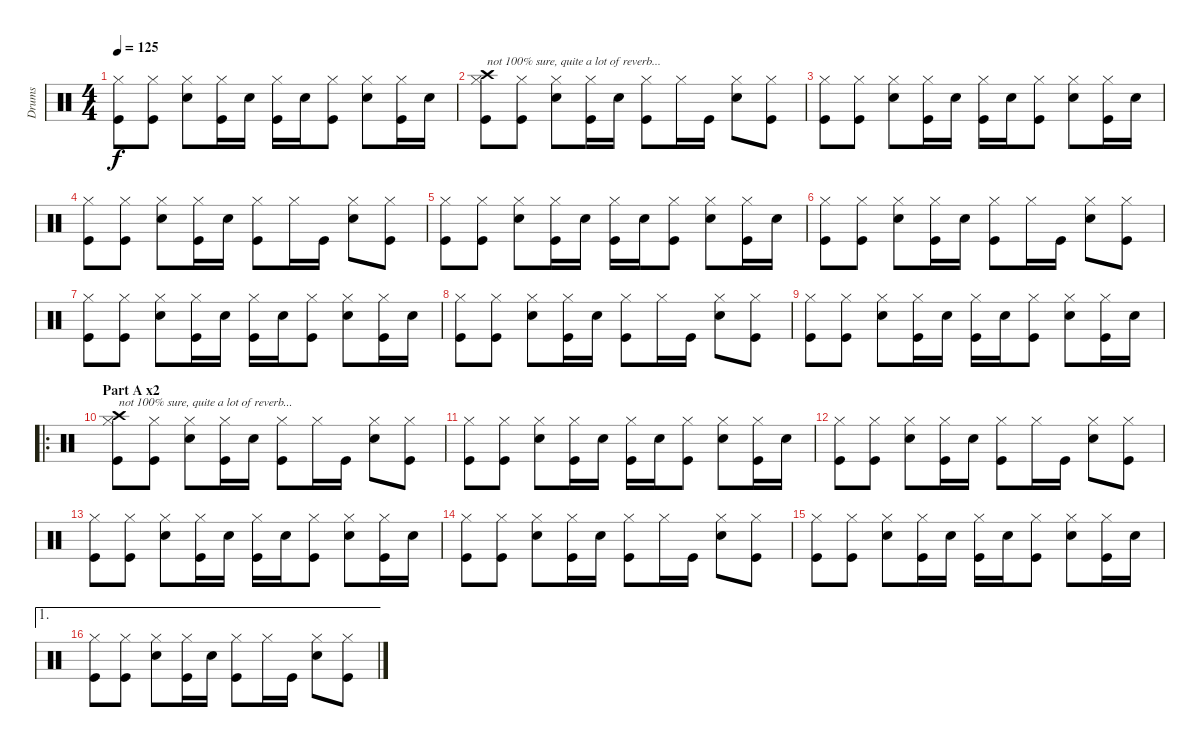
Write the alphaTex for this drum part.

\track ("Drums" "Drums") {instrument percussion}
\staff {score}
\articulation defaults
\ts (4 4)
\tempo 125
\clef neutral
\ks c
("Hi-Hat (closed)" "Kick (hit)").8{dy f} ("Hi-Hat (closed)" "Kick (hit)").8 ("Hi-Hat (closed)" "Electric Snare (hit)").8 ("Hi-Hat (closed)" "Kick (hit)").16 "Electric Snare (hit)".16 ("Hi-Hat (closed)" "Kick (hit)").16 "Electric Snare (hit)".16 ("Hi-Hat (closed)" "Kick (hit)").8 ("Hi-Hat (closed)" "Electric Snare (hit)").8 ("Hi-Hat (closed)" "Kick (hit)").16 "Electric Snare (hit)".16 |
("Hi-Hat (closed)" "Crash high (hit)" "Kick (hit)").8{txt "not 100% sure, quite a lot of reverb..."} ("Hi-Hat (closed)" "Kick (hit)").8 ("Hi-Hat (closed)" "Electric Snare (hit)").8 ("Hi-Hat (closed)" "Kick (hit)").16 "Electric Snare (hit)".16 ("Hi-Hat (closed)" "Kick (hit)").8 "Hi-Hat (closed)".16 "Kick (hit)".16 ("Hi-Hat (closed)" "Electric Snare (hit)").8 ("Hi-Hat (closed)" "Kick (hit)").8 |
("Hi-Hat (closed)" "Kick (hit)").8 ("Hi-Hat (closed)" "Kick (hit)").8 ("Hi-Hat (closed)" "Electric Snare (hit)").8 ("Hi-Hat (closed)" "Kick (hit)").16 "Electric Snare (hit)".16 ("Hi-Hat (closed)" "Kick (hit)").16 "Electric Snare (hit)".16 ("Hi-Hat (closed)" "Kick (hit)").8 ("Hi-Hat (closed)" "Electric Snare (hit)").8 ("Hi-Hat (closed)" "Kick (hit)").16 "Electric Snare (hit)".16 |
("Hi-Hat (closed)" "Kick (hit)").8 ("Hi-Hat (closed)" "Kick (hit)").8 ("Hi-Hat (closed)" "Electric Snare (hit)").8 ("Hi-Hat (closed)" "Kick (hit)").16 "Electric Snare (hit)".16 ("Hi-Hat (closed)" "Kick (hit)").8 "Hi-Hat (closed)".16 "Kick (hit)".16 ("Hi-Hat (closed)" "Electric Snare (hit)").8 ("Hi-Hat (closed)" "Kick (hit)").8 |
("Hi-Hat (closed)" "Kick (hit)").8 ("Hi-Hat (closed)" "Kick (hit)").8 ("Hi-Hat (closed)" "Electric Snare (hit)").8 ("Hi-Hat (closed)" "Kick (hit)").16 "Electric Snare (hit)".16 ("Hi-Hat (closed)" "Kick (hit)").16 "Electric Snare (hit)".16 ("Hi-Hat (closed)" "Kick (hit)").8 ("Hi-Hat (closed)" "Electric Snare (hit)").8 ("Hi-Hat (closed)" "Kick (hit)").16 "Electric Snare (hit)".16 |
("Hi-Hat (closed)" "Kick (hit)").8 ("Hi-Hat (closed)" "Kick (hit)").8 ("Hi-Hat (closed)" "Electric Snare (hit)").8 ("Hi-Hat (closed)" "Kick (hit)").16 "Electric Snare (hit)".16 ("Hi-Hat (closed)" "Kick (hit)").8 "Hi-Hat (closed)".16 "Kick (hit)".16 ("Hi-Hat (closed)" "Electric Snare (hit)").8 ("Hi-Hat (closed)" "Kick (hit)").8 |
("Hi-Hat (closed)" "Kick (hit)").8 ("Hi-Hat (closed)" "Kick (hit)").8 ("Hi-Hat (closed)" "Electric Snare (hit)").8 ("Hi-Hat (closed)" "Kick (hit)").16 "Electric Snare (hit)".16 ("Hi-Hat (closed)" "Kick (hit)").16 "Electric Snare (hit)".16 ("Hi-Hat (closed)" "Kick (hit)").8 ("Hi-Hat (closed)" "Electric Snare (hit)").8 ("Hi-Hat (closed)" "Kick (hit)").16 "Electric Snare (hit)".16 |
("Hi-Hat (closed)" "Kick (hit)").8 ("Hi-Hat (closed)" "Kick (hit)").8 ("Hi-Hat (closed)" "Electric Snare (hit)").8 ("Hi-Hat (closed)" "Kick (hit)").16 "Electric Snare (hit)".16 ("Hi-Hat (closed)" "Kick (hit)").8 "Hi-Hat (closed)".16 "Kick (hit)".16 ("Hi-Hat (closed)" "Electric Snare (hit)").8 ("Hi-Hat (closed)" "Kick (hit)").8 |
("Hi-Hat (closed)" "Kick (hit)").8 ("Hi-Hat (closed)" "Kick (hit)").8 ("Hi-Hat (closed)" "Electric Snare (hit)").8 ("Hi-Hat (closed)" "Kick (hit)").16 "Electric Snare (hit)".16 ("Hi-Hat (closed)" "Kick (hit)").16 "Electric Snare (hit)".16 ("Hi-Hat (closed)" "Kick (hit)").8 ("Hi-Hat (closed)" "Electric Snare (hit)").8 ("Hi-Hat (closed)" "Kick (hit)").16 "Electric Snare (hit)".16 |
\ro
\section ("" "Part A x2")
("Hi-Hat (closed)" "Crash high (hit)" "Kick (hit)").8{txt "not 100% sure, quite a lot of reverb..."} ("Hi-Hat (closed)" "Kick (hit)").8 ("Hi-Hat (closed)" "Electric Snare (hit)").8 ("Hi-Hat (closed)" "Kick (hit)").16 "Electric Snare (hit)".16 ("Hi-Hat (closed)" "Kick (hit)").8 "Hi-Hat (closed)".16 "Kick (hit)".16 ("Hi-Hat (closed)" "Electric Snare (hit)").8 ("Hi-Hat (closed)" "Kick (hit)").8 |
("Hi-Hat (closed)" "Kick (hit)").8 ("Hi-Hat (closed)" "Kick (hit)").8 ("Hi-Hat (closed)" "Electric Snare (hit)").8 ("Hi-Hat (closed)" "Kick (hit)").16 "Electric Snare (hit)".16 ("Hi-Hat (closed)" "Kick (hit)").16 "Electric Snare (hit)".16 ("Hi-Hat (closed)" "Kick (hit)").8 ("Hi-Hat (closed)" "Electric Snare (hit)").8 ("Hi-Hat (closed)" "Kick (hit)").16 "Electric Snare (hit)".16 |
("Hi-Hat (closed)" "Kick (hit)").8 ("Hi-Hat (closed)" "Kick (hit)").8 ("Hi-Hat (closed)" "Electric Snare (hit)").8 ("Hi-Hat (closed)" "Kick (hit)").16 "Electric Snare (hit)".16 ("Hi-Hat (closed)" "Kick (hit)").8 "Hi-Hat (closed)".16 "Kick (hit)".16 ("Hi-Hat (closed)" "Electric Snare (hit)").8 ("Hi-Hat (closed)" "Kick (hit)").8 |
("Hi-Hat (closed)" "Kick (hit)").8 ("Hi-Hat (closed)" "Kick (hit)").8 ("Hi-Hat (closed)" "Electric Snare (hit)").8 ("Hi-Hat (closed)" "Kick (hit)").16 "Electric Snare (hit)".16 ("Hi-Hat (closed)" "Kick (hit)").16 "Electric Snare (hit)".16 ("Hi-Hat (closed)" "Kick (hit)").8 ("Hi-Hat (closed)" "Electric Snare (hit)").8 ("Hi-Hat (closed)" "Kick (hit)").16 "Electric Snare (hit)".16 |
("Hi-Hat (closed)" "Kick (hit)").8 ("Hi-Hat (closed)" "Kick (hit)").8 ("Hi-Hat (closed)" "Electric Snare (hit)").8 ("Hi-Hat (closed)" "Kick (hit)").16 "Electric Snare (hit)".16 ("Hi-Hat (closed)" "Kick (hit)").8 "Hi-Hat (closed)".16 "Kick (hit)".16 ("Hi-Hat (closed)" "Electric Snare (hit)").8 ("Hi-Hat (closed)" "Kick (hit)").8 |
("Hi-Hat (closed)" "Kick (hit)").8 ("Hi-Hat (closed)" "Kick (hit)").8 ("Hi-Hat (closed)" "Electric Snare (hit)").8 ("Hi-Hat (closed)" "Kick (hit)").16 "Electric Snare (hit)".16 ("Hi-Hat (closed)" "Kick (hit)").16 "Electric Snare (hit)".16 ("Hi-Hat (closed)" "Kick (hit)").8 ("Hi-Hat (closed)" "Electric Snare (hit)").8 ("Hi-Hat (closed)" "Kick (hit)").16 "Electric Snare (hit)".16 |
\ae 1
("Hi-Hat (closed)" "Kick (hit)").8 ("Hi-Hat (closed)" "Kick (hit)").8 ("Hi-Hat (closed)" "Electric Snare (hit)").8 ("Hi-Hat (closed)" "Kick (hit)").16 "Electric Snare (hit)".16 ("Hi-Hat (closed)" "Kick (hit)").8 "Hi-Hat (closed)".16 "Kick (hit)".16 ("Hi-Hat (closed)" "Electric Snare (hit)").8 ("Hi-Hat (closed)" "Kick (hit)").8
